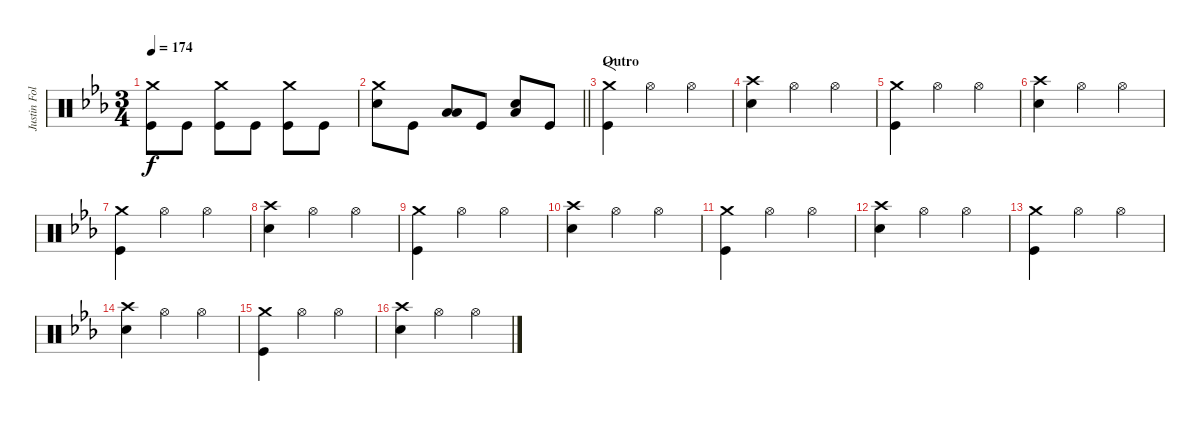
\track ("Justin Foley" "Justin Fol") {instrument percussion}
\staff {score}
\articulation defaults
\ts (3 4)
\tempo 174
\clef neutral
\ks cminor
("Crash medium (hit)" "Kick (hit)").8{dy f} "Kick (hit)".8 ("Crash medium (hit)" "Kick (hit)").8 "Kick (hit)".8 ("Crash medium (hit)" "Kick (hit)").8 "Kick (hit)".8 |
\barLineRight lightlight
("Crash medium (hit)" "Snare (hit) 2").8 "Kick (hit)".8 ("Low Floor Tom (hit)" "Low Tom (hit)").8 "Kick (hit)".8 ("Snare (hit) 2" "Low Floor Tom (hit)").8 "Kick (hit)".8 |
\section ("" "Outro")
("Crash medium (hit)" "Kick (hit)").4{f} "Hi-Hat (open)".4 "Hi-Hat (open)".4 |
("Snare (hit) 2" "Crash high (hit)").4 "Hi-Hat (open)".4 "Hi-Hat (open)".4 |
("Kick (hit)" "Crash medium (hit)").4 "Hi-Hat (open)".4 "Hi-Hat (open)".4 |
("Snare (hit) 2" "Crash high (hit)").4 "Hi-Hat (open)".4 "Hi-Hat (open)".4 |
("Crash medium (hit)" "Kick (hit)").4 "Hi-Hat (open)".4 "Hi-Hat (open)".4 |
("Snare (hit) 2" "Crash high (hit)").4 "Hi-Hat (open)".4 "Hi-Hat (open)".4 |
("Crash medium (hit)" "Kick (hit)").4 "Hi-Hat (open)".4 "Hi-Hat (open)".4 |
("Snare (hit) 2" "Crash high (hit)").4 "Hi-Hat (open)".4 "Hi-Hat (open)".4 |
("Crash medium (hit)" "Kick (hit)").4 "Hi-Hat (open)".4 "Hi-Hat (open)".4 |
("Snare (hit) 2" "Crash high (hit)").4 "Hi-Hat (open)".4 "Hi-Hat (open)".4 |
("Crash medium (hit)" "Kick (hit)").4 "Hi-Hat (open)".4 "Hi-Hat (open)".4 |
("Snare (hit) 2" "Crash high (hit)").4 "Hi-Hat (open)".4 "Hi-Hat (open)".4 |
("Crash medium (hit)" "Kick (hit)").4 "Hi-Hat (open)".4 "Hi-Hat (open)".4 |
("Snare (hit) 2" "Crash high (hit)").4 "Hi-Hat (open)".4 "Hi-Hat (open)".4
